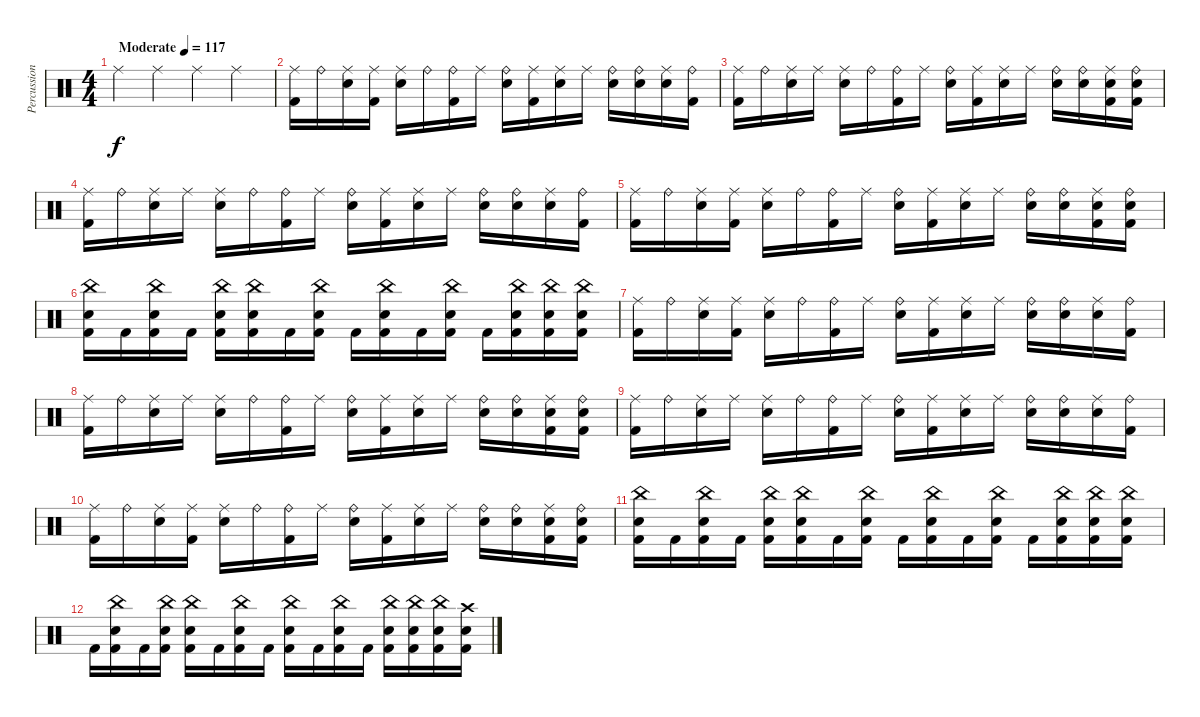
\track ("Percussion" "Percussion") {instrument percussion}
\staff {score}
\articulation defaults
\ts (4 4)
\tempo (117 "Moderate")
\clef neutral
\ks c "Ride (middle)".4{dy f} "Ride (middle)".4 "Ride (middle)".4 "Ride (middle)".4
|
("Kick (hit) 2" "Ride (middle)").16 "Ride (bell)".16 ("Electric Snare (hit)" "Ride (middle)").16 ("Kick (hit) 2" "Ride (middle)").16 ("Electric Snare (hit)" "Ride (middle)").16 "Ride (bell)".16 ("Kick (hit) 2" "Ride (bell)").16 "Ride (middle)".16 ("Electric Snare (hit)" "Ride (bell)").16 ("Kick (hit) 2" "Ride (middle)").16 ("Electric Snare (hit)" "Ride (middle)").16 "Ride (middle)".16 ("Electric Snare (hit)" "Ride (bell)").16 ("Electric Snare (hit)" "Ride (bell)").16 ("Electric Snare (hit)" "Ride (middle)").16 ("Kick (hit) 2" "Ride (bell)").16 |
("Kick (hit) 2" "Ride (middle)").16 "Ride (bell)".16 ("Electric Snare (hit)" "Ride (middle)").16 "Ride (middle)".16 ("Electric Snare (hit)" "Ride (middle)").16 "Ride (bell)".16 ("Kick (hit) 2" "Ride (bell)").16 "Ride (middle)".16 ("Electric Snare (hit)" "Ride (bell)").16 ("Kick (hit) 2" "Ride (middle)").16 ("Electric Snare (hit)" "Ride (middle)").16 "Ride (middle)".16 ("Electric Snare (hit)" "Ride (bell)").16 ("Electric Snare (hit)" "Ride (bell)").16 ("Kick (hit) 2" "Electric Snare (hit)" "Ride (middle)").16 ("Kick (hit) 2" "Electric Snare (hit)" "Ride (bell)").16 |
("Kick (hit) 2" "Ride (middle)").16 "Ride (bell)".16 ("Electric Snare (hit)" "Ride (middle)").16 "Ride (middle)".16 ("Electric Snare (hit)" "Ride (middle)").16 "Ride (bell)".16 ("Kick (hit) 2" "Ride (bell)").16 "Ride (middle)".16 ("Electric Snare (hit)" "Ride (bell)").16 ("Kick (hit) 2" "Ride (middle)").16 ("Electric Snare (hit)" "Ride (middle)").16 "Ride (middle)".16 ("Electric Snare (hit)" "Ride (bell)").16 ("Electric Snare (hit)" "Ride (bell)").16 ("Electric Snare (hit)" "Ride (middle)").16 ("Kick (hit) 2" "Ride (bell)").16 |
("Kick (hit) 2" "Ride (middle)").16 "Ride (bell)".16 ("Electric Snare (hit)" "Ride (middle)").16 ("Kick (hit) 2" "Ride (middle)").16 ("Electric Snare (hit)" "Ride (middle)").16 "Ride (bell)".16 ("Kick (hit) 2" "Ride (bell)").16 "Ride (middle)".16 ("Electric Snare (hit)" "Ride (bell)").16 ("Kick (hit) 2" "Ride (middle)").16 ("Electric Snare (hit)" "Ride (middle)").16 "Ride (middle)".16 ("Electric Snare (hit)" "Ride (bell)").16 ("Electric Snare (hit)" "Ride (bell)").16 ("Kick (hit) 2" "Electric Snare (hit)" "Ride (middle)").16 ("Kick (hit) 2" "Electric Snare (hit)" "Ride (bell)").16 |
("Kick (hit) 2" "Electric Snare (hit)" "China (hit)").16 "Kick (hit) 2".16 ("Kick (hit) 2" "Electric Snare (hit)" "China (hit)").16 "Kick (hit) 2".16 ("Kick (hit) 2" "Electric Snare (hit)" "China (hit)").16 ("Kick (hit) 2" "Electric Snare (hit)" "China (hit)").16 "Kick (hit) 2".16 ("Kick (hit) 2" "Electric Snare (hit)" "China (hit)").16 "Kick (hit) 2".16 ("Kick (hit) 2" "Electric Snare (hit)" "China (hit)").16 "Kick (hit) 2".16 ("Kick (hit) 2" "Electric Snare (hit)" "China (hit)").16 "Kick (hit) 2".16 ("Kick (hit) 2" "Electric Snare (hit)" "China (hit)").16 ("Kick (hit) 2" "Electric Snare (hit)" "China (hit)").16 ("Kick (hit) 2" "Electric Snare (hit)" "China (hit)").16 |
("Kick (hit) 2" "Ride (middle)").16 "Ride (bell)".16 ("Electric Snare (hit)" "Ride (middle)").16 ("Kick (hit) 2" "Ride (middle)").16 ("Electric Snare (hit)" "Ride (middle)").16 "Ride (bell)".16 ("Kick (hit) 2" "Ride (bell)").16 "Ride (middle)".16 ("Electric Snare (hit)" "Ride (bell)").16 ("Kick (hit) 2" "Ride (middle)").16 ("Electric Snare (hit)" "Ride (middle)").16 "Ride (middle)".16 ("Electric Snare (hit)" "Ride (bell)").16 ("Electric Snare (hit)" "Ride (bell)").16 ("Electric Snare (hit)" "Ride (middle)").16 ("Kick (hit) 2" "Ride (bell)").16 |
("Kick (hit) 2" "Ride (middle)").16 "Ride (bell)".16 ("Electric Snare (hit)" "Ride (middle)").16 "Ride (middle)".16 ("Electric Snare (hit)" "Ride (middle)").16 "Ride (bell)".16 ("Kick (hit) 2" "Ride (bell)").16 "Ride (middle)".16 ("Electric Snare (hit)" "Ride (bell)").16 ("Kick (hit) 2" "Ride (middle)").16 ("Electric Snare (hit)" "Ride (middle)").16 "Ride (middle)".16 ("Electric Snare (hit)" "Ride (bell)").16 ("Electric Snare (hit)" "Ride (bell)").16 ("Kick (hit) 2" "Electric Snare (hit)" "Ride (middle)").16 ("Kick (hit) 2" "Electric Snare (hit)" "Ride (bell)").16 |
("Kick (hit) 2" "Ride (middle)").16 "Ride (bell)".16 ("Electric Snare (hit)" "Ride (middle)").16 "Ride (middle)".16 ("Electric Snare (hit)" "Ride (middle)").16 "Ride (bell)".16 ("Kick (hit) 2" "Ride (bell)").16 "Ride (middle)".16 ("Electric Snare (hit)" "Ride (bell)").16 ("Kick (hit) 2" "Ride (middle)").16 ("Electric Snare (hit)" "Ride (middle)").16 "Ride (middle)".16 ("Electric Snare (hit)" "Ride (bell)").16 ("Electric Snare (hit)" "Ride (bell)").16 ("Electric Snare (hit)" "Ride (middle)").16 ("Kick (hit) 2" "Ride (bell)").16 |
("Kick (hit) 2" "Ride (middle)").16 "Ride (bell)".16 ("Electric Snare (hit)" "Ride (middle)").16 ("Kick (hit) 2" "Ride (middle)").16 ("Electric Snare (hit)" "Ride (middle)").16 "Ride (bell)".16 ("Kick (hit) 2" "Ride (bell)").16 "Ride (middle)".16 ("Electric Snare (hit)" "Ride (bell)").16 ("Kick (hit) 2" "Ride (middle)").16 ("Electric Snare (hit)" "Ride (middle)").16 "Ride (middle)".16 ("Electric Snare (hit)" "Ride (bell)").16 ("Electric Snare (hit)" "Ride (bell)").16 ("Kick (hit) 2" "Electric Snare (hit)" "Ride (middle)").16 ("Kick (hit) 2" "Electric Snare (hit)" "Ride (bell)").16 |
("Kick (hit) 2" "Electric Snare (hit)" "China (hit)").16 "Kick (hit) 2".16 ("Kick (hit) 2" "Electric Snare (hit)" "China (hit)").16 "Kick (hit) 2".16 ("Kick (hit) 2" "Electric Snare (hit)" "China (hit)").16 ("Kick (hit) 2" "Electric Snare (hit)" "China (hit)").16 "Kick (hit) 2".16 ("Kick (hit) 2" "Electric Snare (hit)" "China (hit)").16 "Kick (hit) 2".16 ("Kick (hit) 2" "Electric Snare (hit)" "China (hit)").16 "Kick (hit) 2".16 ("Kick (hit) 2" "Electric Snare (hit)" "China (hit)").16 "Kick (hit) 2".16 ("Kick (hit) 2" "Electric Snare (hit)" "China (hit)").16 ("Kick (hit) 2" "Electric Snare (hit)" "China (hit)").16 ("Kick (hit) 2" "Electric Snare (hit)" "China (hit)").16 |
"Kick (hit) 2".16 ("Kick (hit) 2" "Electric Snare (hit)" "China (hit)").16 "Kick (hit) 2".16 ("Kick (hit) 2" "Electric Snare (hit)" "China (hit)").16 ("Kick (hit) 2" "Electric Snare (hit)" "China (hit)").16 "Kick (hit) 2".16 ("Kick (hit) 2" "Electric Snare (hit)" "China (hit)").16 "Kick (hit) 2".16 ("Kick (hit) 2" "Electric Snare (hit)" "China (hit)").16 "Kick (hit) 2".16 ("Kick (hit) 2" "Electric Snare (hit)" "China (hit)").16 "Kick (hit) 2".16 ("Kick (hit) 2" "Electric Snare (hit)" "China (hit)").16 ("Kick (hit) 2" "Electric Snare (hit)" "China (hit)").16 ("Kick (hit) 2" "Electric Snare (hit)" "China (hit)").16 ("Kick (hit) 2" "Electric Snare (hit)" "Crash high (hit)").16
